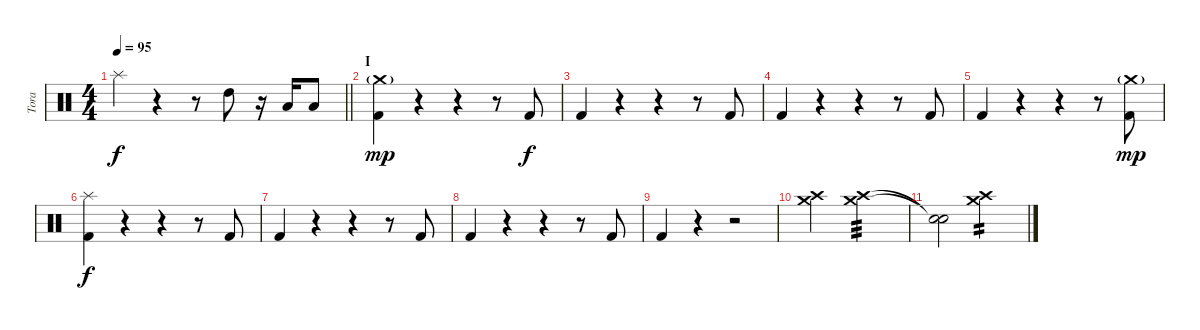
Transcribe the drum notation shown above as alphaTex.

\track ("Tora" "Tora") {instrument percussion}
\staff {score}
\articulation defaults
\ts (4 4)
\tempo 95
\clef neutral
\barLineRight lightlight
\ks c "Splash (hit)".4{dy f}
r.4 r.8 "High Tom (hit)".8 r.16 "Low Tom (hit)".16 "Low Tom (hit)".8 |
\section ("" "I")
("Crash medium (hit)"{g} "Kick (hit) 2").4{dy mp} r.4 r.4 r.8 "Kick (hit) 2".8{dy f} |
"Kick (hit) 2".4 r.4 r.4 r.8 "Kick (hit) 2".8 |
"Kick (hit) 2".4 r.4 r.4 r.8 "Kick (hit) 2".8 |
"Kick (hit) 2".4 r.4 r.4 r.8 ("Crash medium (hit)"{g} "Kick (hit) 2").8{dy mp} |
("Splash (hit)" "Kick (hit) 2").4{dy f} r.4 r.4 r.8 "Kick (hit) 2".8 |
"Kick (hit) 2".4 r.4 r.4 r.8 "Kick (hit) 2".8 |
"Kick (hit) 2".4 r.4 r.4 r.8 "Kick (hit) 2".8 |
"Kick (hit) 2".4 r.4 r.2 |
("Crash medium (hit)" "Crash high (hit)").2{volume 5} ("Crash medium (hit)" "Crash high (hit)").2{tp 3} |
("Snare (hit)"{t} "Snare (hit)"{t}).2 ("Crash medium (hit)" "Crash high (hit)").2{tp 2}
